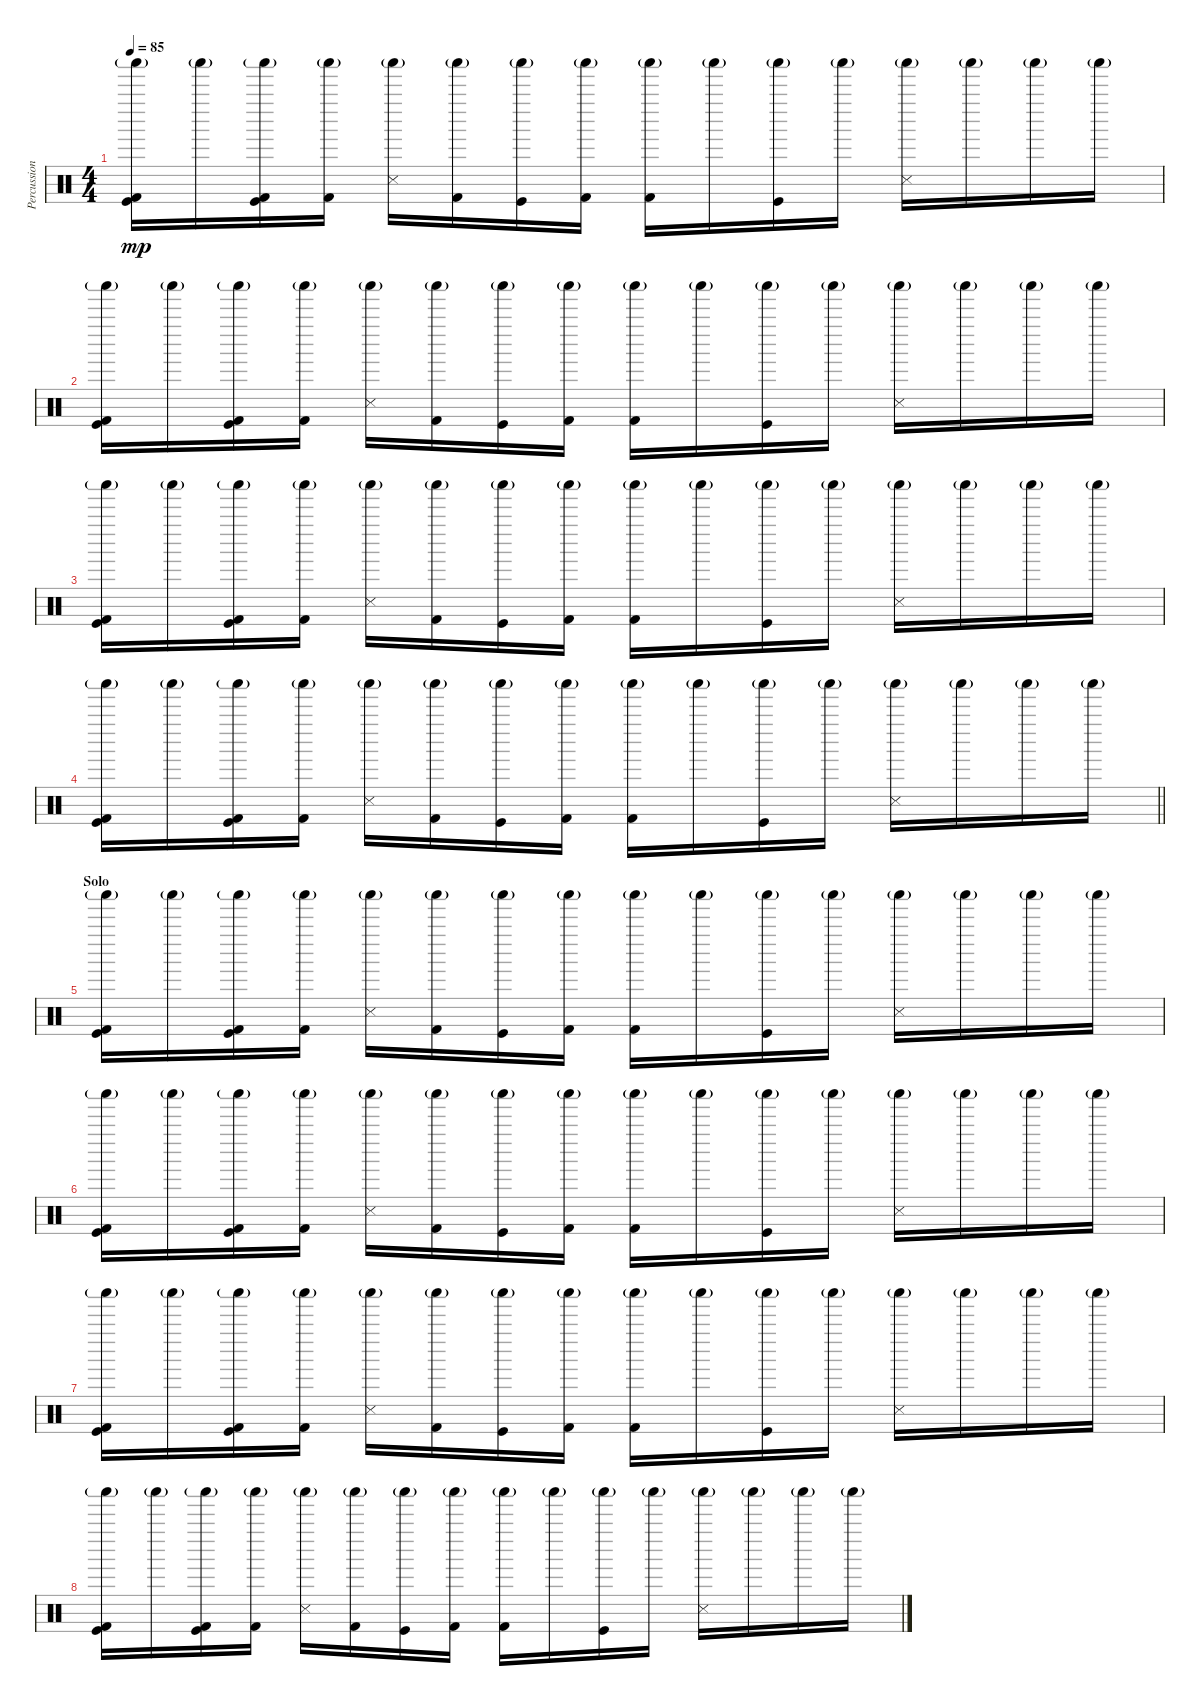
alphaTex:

\track ("Percussions" "Percussion") {instrument percussion}
\staff {score}
\articulation defaults
\ts (4 4)
\tempo 85
\clef neutral
\ks c
("Shaker (hit)"{g} "Kick (hit) 2" "Kick (hit)").16{dy mp} "Shaker (hit)"{g}.16 ("Shaker (hit)"{g} "Kick (hit) 2" "Kick (hit)").16 ("Shaker (hit)"{g} "Kick (hit) 2").16 ("Shaker (hit)"{g} "Snare (side stick) 3").16 ("Shaker (hit)"{g} "Kick (hit) 2").16 ("Shaker (hit)"{g} "Kick (hit)").16 ("Shaker (hit)"{g} "Kick (hit) 2").16 ("Shaker (hit)"{g} "Kick (hit) 2").16 "Shaker (hit)"{g}.16 ("Shaker (hit)"{g} "Kick (hit)").16 "Shaker (hit)"{g}.16 ("Shaker (hit)"{g} "Snare (side stick) 3").16 "Shaker (hit)"{g}.16 "Shaker (hit)"{g}.16 "Shaker (hit)"{g}.16 |
("Shaker (hit)"{g} "Kick (hit) 2" "Kick (hit)").16 "Shaker (hit)"{g}.16 ("Shaker (hit)"{g} "Kick (hit) 2" "Kick (hit)").16 ("Shaker (hit)"{g} "Kick (hit) 2").16 ("Shaker (hit)"{g} "Snare (side stick) 3").16 ("Shaker (hit)"{g} "Kick (hit) 2").16 ("Shaker (hit)"{g} "Kick (hit)").16 ("Shaker (hit)"{g} "Kick (hit) 2").16 ("Shaker (hit)"{g} "Kick (hit) 2").16 "Shaker (hit)"{g}.16 ("Shaker (hit)"{g} "Kick (hit)").16 "Shaker (hit)"{g}.16 ("Shaker (hit)"{g} "Snare (side stick) 3").16 "Shaker (hit)"{g}.16 "Shaker (hit)"{g}.16 "Shaker (hit)"{g}.16 |
("Shaker (hit)"{g} "Kick (hit) 2" "Kick (hit)").16 "Shaker (hit)"{g}.16 ("Shaker (hit)"{g} "Kick (hit) 2" "Kick (hit)").16 ("Shaker (hit)"{g} "Kick (hit) 2").16 ("Shaker (hit)"{g} "Snare (side stick) 3").16 ("Shaker (hit)"{g} "Kick (hit) 2").16 ("Shaker (hit)"{g} "Kick (hit)").16 ("Shaker (hit)"{g} "Kick (hit) 2").16 ("Shaker (hit)"{g} "Kick (hit) 2").16 "Shaker (hit)"{g}.16 ("Shaker (hit)"{g} "Kick (hit)").16 "Shaker (hit)"{g}.16 ("Shaker (hit)"{g} "Snare (side stick) 3").16 "Shaker (hit)"{g}.16 "Shaker (hit)"{g}.16 "Shaker (hit)"{g}.16 |
\barLineRight lightlight
("Shaker (hit)"{g} "Kick (hit) 2" "Kick (hit)").16 "Shaker (hit)"{g}.16 ("Shaker (hit)"{g} "Kick (hit) 2" "Kick (hit)").16 ("Shaker (hit)"{g} "Kick (hit) 2").16 ("Shaker (hit)"{g} "Snare (side stick) 3").16 ("Shaker (hit)"{g} "Kick (hit) 2").16 ("Shaker (hit)"{g} "Kick (hit)").16 ("Shaker (hit)"{g} "Kick (hit) 2").16 ("Shaker (hit)"{g} "Kick (hit) 2").16 "Shaker (hit)"{g}.16 ("Shaker (hit)"{g} "Kick (hit)").16 "Shaker (hit)"{g}.16 ("Shaker (hit)"{g} "Snare (side stick) 3").16 "Shaker (hit)"{g}.16 "Shaker (hit)"{g}.16 "Shaker (hit)"{g}.16 |
\section ("" "Solo")
("Shaker (hit)"{g} "Kick (hit) 2" "Kick (hit)").16 "Shaker (hit)"{g}.16 ("Shaker (hit)"{g} "Kick (hit) 2" "Kick (hit)").16 ("Shaker (hit)"{g} "Kick (hit) 2").16 ("Shaker (hit)"{g} "Snare (side stick) 3").16 ("Shaker (hit)"{g} "Kick (hit) 2").16 ("Shaker (hit)"{g} "Kick (hit)").16 ("Shaker (hit)"{g} "Kick (hit) 2").16 ("Shaker (hit)"{g} "Kick (hit) 2").16 "Shaker (hit)"{g}.16 ("Shaker (hit)"{g} "Kick (hit)").16 "Shaker (hit)"{g}.16 ("Shaker (hit)"{g} "Snare (side stick) 3").16 "Shaker (hit)"{g}.16 "Shaker (hit)"{g}.16 "Shaker (hit)"{g}.16 |
("Shaker (hit)"{g} "Kick (hit) 2" "Kick (hit)").16 "Shaker (hit)"{g}.16 ("Shaker (hit)"{g} "Kick (hit) 2" "Kick (hit)").16 ("Shaker (hit)"{g} "Kick (hit) 2").16 ("Shaker (hit)"{g} "Snare (side stick) 3").16 ("Shaker (hit)"{g} "Kick (hit) 2").16 ("Shaker (hit)"{g} "Kick (hit)").16 ("Shaker (hit)"{g} "Kick (hit) 2").16 ("Shaker (hit)"{g} "Kick (hit) 2").16 "Shaker (hit)"{g}.16 ("Shaker (hit)"{g} "Kick (hit)").16 "Shaker (hit)"{g}.16 ("Shaker (hit)"{g} "Snare (side stick) 3").16 "Shaker (hit)"{g}.16 "Shaker (hit)"{g}.16 "Shaker (hit)"{g}.16 |
("Shaker (hit)"{g} "Kick (hit) 2" "Kick (hit)").16 "Shaker (hit)"{g}.16 ("Shaker (hit)"{g} "Kick (hit) 2" "Kick (hit)").16 ("Shaker (hit)"{g} "Kick (hit) 2").16 ("Shaker (hit)"{g} "Snare (side stick) 3").16 ("Shaker (hit)"{g} "Kick (hit) 2").16 ("Shaker (hit)"{g} "Kick (hit)").16 ("Shaker (hit)"{g} "Kick (hit) 2").16 ("Shaker (hit)"{g} "Kick (hit) 2").16 "Shaker (hit)"{g}.16 ("Shaker (hit)"{g} "Kick (hit)").16 "Shaker (hit)"{g}.16 ("Shaker (hit)"{g} "Snare (side stick) 3").16 "Shaker (hit)"{g}.16 "Shaker (hit)"{g}.16 "Shaker (hit)"{g}.16 |
("Shaker (hit)"{g} "Kick (hit) 2" "Kick (hit)").16 "Shaker (hit)"{g}.16 ("Shaker (hit)"{g} "Kick (hit) 2" "Kick (hit)").16 ("Shaker (hit)"{g} "Kick (hit) 2").16 ("Shaker (hit)"{g} "Snare (side stick) 3").16 ("Shaker (hit)"{g} "Kick (hit) 2").16 ("Shaker (hit)"{g} "Kick (hit)").16 ("Shaker (hit)"{g} "Kick (hit) 2").16 ("Shaker (hit)"{g} "Kick (hit) 2").16 "Shaker (hit)"{g}.16 ("Shaker (hit)"{g} "Kick (hit)").16 "Shaker (hit)"{g}.16 ("Shaker (hit)"{g} "Snare (side stick) 3").16 "Shaker (hit)"{g}.16 "Shaker (hit)"{g}.16 "Shaker (hit)"{g}.16
